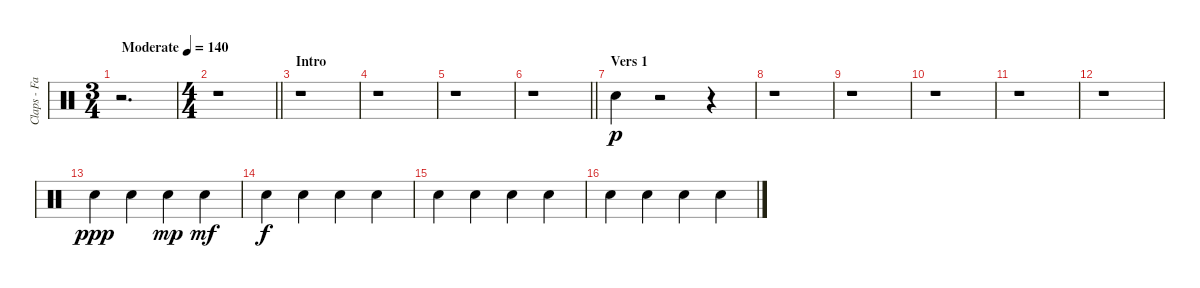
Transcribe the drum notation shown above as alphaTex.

\track ("Claps - Fans" "Claps - Fa") {instrument percussion}
\staff {score}
\articulation defaults
\ts (3 4)
\tempo (140 "Moderate")
\clef neutral
\ks c
r.2{d dy p} |
\ts (4 4)
\barLineRight lightlight
r.1 |
\section ("" "Intro")
r.1 |
r.1 |
r.1 |
\barLineRight lightlight
r.1 |
\section ("" "Vers 1")
"Hand Clap (hit)".4 r.2 r.4 |
r.1 |
r.1 |
r.1 |
r.1 |
r.1 |
"Hand Clap (hit)".4{dy ppp} "Hand Clap (hit)".4 "Hand Clap (hit)".4{dy mp} "Hand Clap (hit)".4{dy mf} |
"Hand Clap (hit)".4{dy f} "Hand Clap (hit)".4 "Hand Clap (hit)".4 "Hand Clap (hit)".4 |
"Hand Clap (hit)".4 "Hand Clap (hit)".4 "Hand Clap (hit)".4 "Hand Clap (hit)".4 |
"Hand Clap (hit)".4 "Hand Clap (hit)".4 "Hand Clap (hit)".4 "Hand Clap (hit)".4
